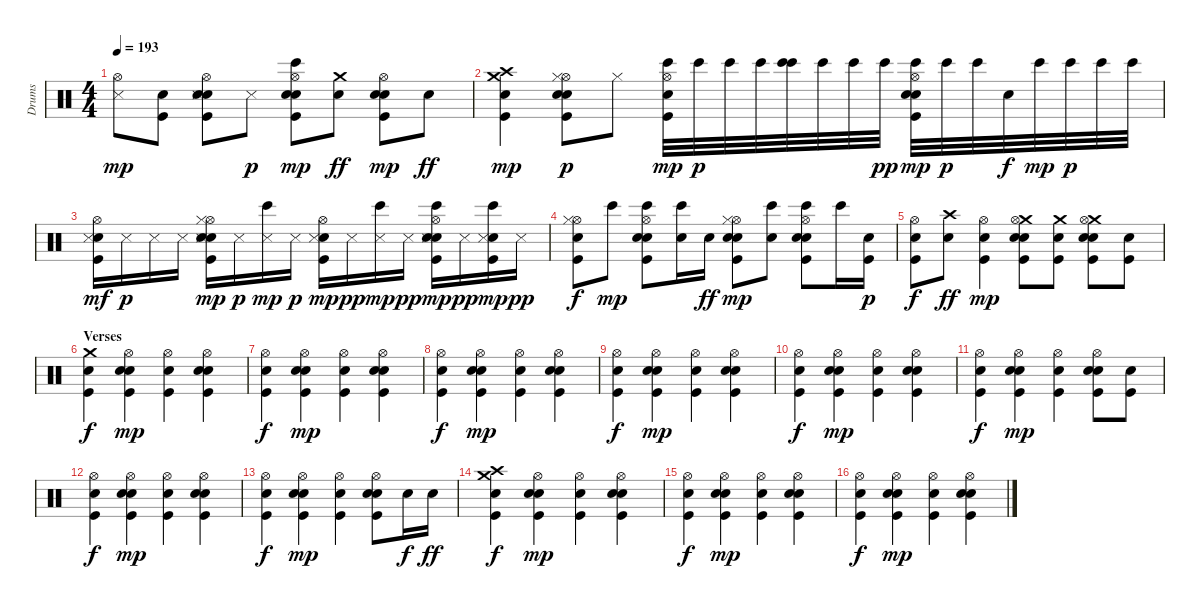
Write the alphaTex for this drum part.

\track ("Drums" "Drums") {instrument percussion}
\staff {score}
\articulation defaults
\ts (4 4)
\tempo 193
\clef neutral
\ks c
("Snare (side stick) 3" "Hi-Hat (open)").8{dy mp} ("Kick (hit)" "Snare (hit) 2").8 ("Kick (hit)" "Snare (hit) 2" "Electric Snare (hit)" "Snare (side stick) 3" "Hi-Hat (open)").8 "Snare (side stick) 3".8{dy p} ("Bongo High (hit)" "Hand Clap (hit)" "Kick (hit)" "Snare (hit) 2" "Hi-Hat (open)").8{dy mp} ("Crash medium (hit)" "Electric Snare (hit)").8{dy ff} ("Kick (hit)" "Snare (hit) 2" "Electric Snare (hit)" "Hi-Hat (open)").8{dy mp} "Electric Snare (hit)".8{dy ff} |
("Crash medium (hit)" "Crash high (hit)" "Kick (hit)" "Snare (hit) 2").4{dy mp} ("Kick (hit)" "Snare (hit) 2" "Electric Snare (hit)" "Hi-Hat (open)" "Hi-Hat (closed)").8{dy p} "Hi-Hat (closed)".8 ("Kick (hit)" "Bongo High (hit)" "Snare (hit) 2" "Hi-Hat (open)").32{dy mp} "Bongo High (hit)".32{dy p} "Bongo High (hit)".32 "Bongo High (hit)".32 ("Bongo High (hit)" "Bongo High (hit)").32 "Bongo High (hit)".32 "Bongo High (hit)".32 "Bongo High (hit)".32{dy pp} ("Kick (hit)" "Snare (hit) 2" "Electric Snare (hit)" "Hi-Hat (open)" "Bongo High (hit)").32{dy mp} "Bongo High (hit)".32{dy p} "Bongo High (hit)".32 "Snare (hit) 2".32{dy f} "Bongo High (hit)".32{dy mp} "Bongo High (hit)".32{dy p} "Bongo High (hit)".32 "Bongo High (hit)".32 |
("Kick (hit)" "Snare (hit) 2" "Snare (side stick) 3" "Hi-Hat (open)").16{dy mf} "Snare (side stick) 3".16{dy p} "Snare (side stick) 3".16 "Snare (side stick) 3".16 ("Kick (hit)" "Snare (hit) 2" "Electric Snare (hit)" "Snare (side stick) 3" "Hi-Hat (open)" "Hi-Hat (closed)").16{dy mp} "Snare (side stick) 3".16{dy p} ("Snare (side stick) 3" "Bongo High (hit)").16{dy mp} "Snare (side stick) 3".16{dy p} ("Kick (hit)" "Snare (hit) 2" "Snare (side stick) 3" "Hi-Hat (open)").16{dy mp} "Snare (side stick) 3".16{dy pp} ("Snare (side stick) 3" "Bongo High (hit)").16{dy mp} "Snare (side stick) 3".16{dy pp} ("Kick (hit)" "Snare (hit) 2" "Electric Snare (hit)" "Snare (side stick) 3" "Hi-Hat (open)" "Bongo High (hit)").16{dy mp} "Snare (side stick) 3".16{dy pp} ("Kick (hit)" "Snare (hit) 2" "Snare (side stick) 3" "Bongo High (hit)").16{dy mp} "Snare (side stick) 3".16{dy pp} |
("Kick (hit)" "Snare (hit) 2" "Hi-Hat (open)" "Hi-Hat (closed)").8{dy f} "Bongo High (hit)".8{dy mp} ("Kick (hit)" "Snare (hit) 2" "Electric Snare (hit)" "Hi-Hat (open)" "Bongo High (hit)").8 ("Electric Snare (hit)" "Bongo High (hit)").16 "Electric Snare (hit)".16{dy ff} ("Kick (hit)" "Snare (hit) 2" "Electric Snare (hit)" "Hi-Hat (open)" "Hi-Hat (closed)").8{dy mp} ("Electric Snare (hit)" "Bongo High (hit)").8 ("Kick (hit)" "Snare (hit) 2" "Electric Snare (hit)" "Hi-Hat (open)" "Bongo High (hit)").8 "Bongo High (hit)".16 ("Kick (hit)" "Snare (hit) 2").16{dy p} |
("Hi-Hat (open)" "Snare (hit) 2" "Kick (hit)").8{dy f} ("Crash high (hit)" "Electric Snare (hit)").8{dy ff} ("Kick (hit)" "Snare (hit) 2" "Hi-Hat (open)").4{dy mp} ("Crash medium (hit)" "Kick (hit)" "Snare (hit) 2" "Electric Snare (hit)" "Hi-Hat (open)").8 ("Crash medium (hit)" "Kick (hit)" "Snare (hit) 2").8 ("Crash medium (hit)" "Kick (hit)" "Snare (hit) 2" "Electric Snare (hit)" "Hi-Hat (open)").8 ("Kick (hit)" "Snare (hit) 2").8 |
\section ("" "Verses")
("Crash medium (hit)" "Snare (hit) 2" "Kick (hit)").4{dy f} ("Kick (hit)" "Snare (hit) 2" "Electric Snare (hit)" "Hi-Hat (open)").4{dy mp} ("Kick (hit)" "Snare (hit) 2" "Hi-Hat (open)").4 ("Kick (hit)" "Snare (hit) 2" "Electric Snare (hit)" "Hi-Hat (open)").4 |
("Hi-Hat (open)" "Snare (hit) 2" "Kick (hit)").4{dy f} ("Kick (hit)" "Snare (hit) 2" "Electric Snare (hit)" "Hi-Hat (open)").4{dy mp} ("Kick (hit)" "Snare (hit) 2" "Hi-Hat (open)").4 ("Kick (hit)" "Snare (hit) 2" "Electric Snare (hit)" "Hi-Hat (open)").4 |
("Kick (hit)" "Snare (hit) 2" "Hi-Hat (open)").4{dy f} ("Kick (hit)" "Snare (hit) 2" "Electric Snare (hit)" "Hi-Hat (open)").4{dy mp} ("Kick (hit)" "Snare (hit) 2" "Hi-Hat (open)").4 ("Kick (hit)" "Snare (hit) 2" "Electric Snare (hit)" "Hi-Hat (open)").4 |
("Kick (hit)" "Snare (hit) 2" "Hi-Hat (open)").4{dy f} ("Kick (hit)" "Snare (hit) 2" "Electric Snare (hit)" "Hi-Hat (open)").4{dy mp} ("Kick (hit)" "Snare (hit) 2" "Hi-Hat (open)").4 ("Kick (hit)" "Snare (hit) 2" "Electric Snare (hit)" "Hi-Hat (open)").4 |
("Kick (hit)" "Snare (hit) 2" "Hi-Hat (open)").4{dy f} ("Kick (hit)" "Snare (hit) 2" "Electric Snare (hit)" "Hi-Hat (open)").4{dy mp} ("Kick (hit)" "Snare (hit) 2" "Hi-Hat (open)").4 ("Kick (hit)" "Snare (hit) 2" "Electric Snare (hit)" "Hi-Hat (open)").4 |
("Hi-Hat (open)" "Snare (hit) 2" "Kick (hit)").4{dy f} ("Kick (hit)" "Snare (hit) 2" "Electric Snare (hit)" "Hi-Hat (open)").4{dy mp} ("Kick (hit)" "Snare (hit) 2" "Hi-Hat (open)").4 ("Kick (hit)" "Snare (hit) 2" "Electric Snare (hit)" "Hi-Hat (open)").8 ("Kick (hit)" "Snare (hit) 2").8 |
("Kick (hit)" "Snare (hit) 2" "Hi-Hat (open)").4{dy f} ("Kick (hit)" "Snare (hit) 2" "Electric Snare (hit)" "Hi-Hat (open)").4{dy mp} ("Kick (hit)" "Snare (hit) 2" "Hi-Hat (open)").4 ("Kick (hit)" "Snare (hit) 2" "Electric Snare (hit)" "Hi-Hat (open)").4 |
("Hi-Hat (open)" "Snare (hit) 2" "Kick (hit)").4{dy f} ("Kick (hit)" "Snare (hit) 2" "Electric Snare (hit)" "Hi-Hat (open)").4{dy mp} ("Kick (hit)" "Snare (hit) 2" "Hi-Hat (open)").4 ("Kick (hit)" "Snare (hit) 2" "Electric Snare (hit)" "Hi-Hat (open)").8 "Electric Snare (hit)".16{dy f} "Electric Snare (hit)".16{dy ff} |
("Snare (hit) 2" "Kick (hit)" "Crash medium (hit)" "Crash high (hit)").4{dy f} ("Kick (hit)" "Snare (hit) 2" "Electric Snare (hit)" "Hi-Hat (open)").4{dy mp} ("Kick (hit)" "Snare (hit) 2" "Hi-Hat (open)").4 ("Kick (hit)" "Snare (hit) 2" "Electric Snare (hit)" "Hi-Hat (open)").4 |
("Hi-Hat (open)" "Snare (hit) 2" "Kick (hit)").4{dy f} ("Kick (hit)" "Snare (hit) 2" "Electric Snare (hit)" "Hi-Hat (open)").4{dy mp} ("Kick (hit)" "Snare (hit) 2" "Hi-Hat (open)").4 ("Kick (hit)" "Snare (hit) 2" "Electric Snare (hit)" "Hi-Hat (open)").4 |
("Kick (hit)" "Snare (hit) 2" "Hi-Hat (open)").4{dy f} ("Kick (hit)" "Snare (hit) 2" "Electric Snare (hit)" "Hi-Hat (open)").4{dy mp} ("Kick (hit)" "Snare (hit) 2" "Hi-Hat (open)").4 ("Kick (hit)" "Snare (hit) 2" "Electric Snare (hit)" "Hi-Hat (open)").4
